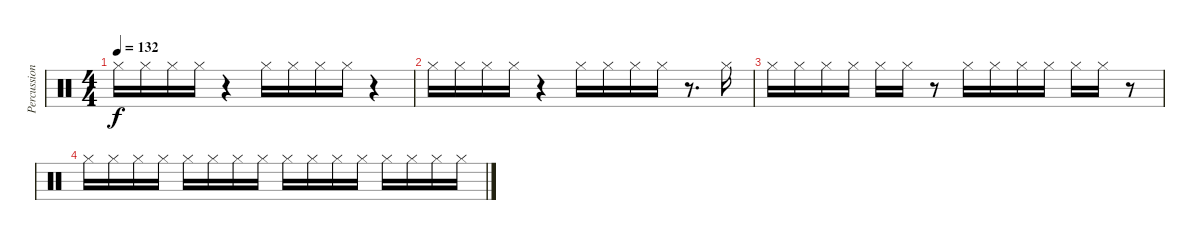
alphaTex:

\track ("Percussions" "Percussion") {instrument percussion}
\staff {score}
\articulation defaults
\ts (4 4)
\tempo 132
\clef neutral
\ks c "Hi-Hat (closed)".16{dy f} "Hi-Hat (closed)".16 "Hi-Hat (closed)".16 "Hi-Hat (closed)".16
r.4 "Hi-Hat (closed)".16 "Hi-Hat (closed)".16 "Hi-Hat (closed)".16 "Hi-Hat (closed)".16 r.4 |
"Hi-Hat (closed)".16 "Hi-Hat (closed)".16 "Hi-Hat (closed)".16 "Hi-Hat (closed)".16 r.4 "Hi-Hat (closed)".16 "Hi-Hat (closed)".16 "Hi-Hat (closed)".16 "Hi-Hat (closed)".16 r.8{d} "Hi-Hat (closed)".16 |
"Hi-Hat (closed)".16 "Hi-Hat (closed)".16 "Hi-Hat (closed)".16 "Hi-Hat (closed)".16 "Hi-Hat (closed)".16 "Hi-Hat (closed)".16 r.8 "Hi-Hat (closed)".16 "Hi-Hat (closed)".16 "Hi-Hat (closed)".16 "Hi-Hat (closed)".16 "Hi-Hat (closed)".16 "Hi-Hat (closed)".16 r.8 |
"Hi-Hat (closed)".16 "Hi-Hat (closed)".16 "Hi-Hat (closed)".16 "Hi-Hat (closed)".16 "Hi-Hat (closed)".16 "Hi-Hat (closed)".16 "Hi-Hat (closed)".16 "Hi-Hat (closed)".16 "Hi-Hat (closed)".16 "Hi-Hat (closed)".16 "Hi-Hat (closed)".16 "Hi-Hat (closed)".16 "Hi-Hat (closed)".16 "Hi-Hat (closed)".16 "Hi-Hat (closed)".16 "Hi-Hat (closed)".16
